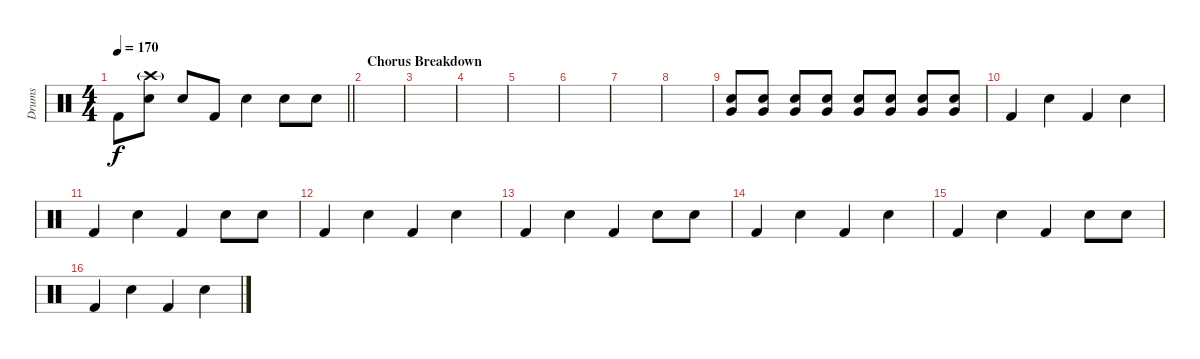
\track ("Drums" "Drums") {instrument percussion}
\staff {score}
\articulation defaults
\ts (4 4)
\tempo 170
\clef neutral
\barLineRight lightlight
\ks c "Kick (hit) 2".8{dy f}
("Crash high (hit)"{g} "Snare (hit) 2").8 "Snare (hit) 2".8 "Kick (hit) 2".8 "Snare (hit) 2".4 "Snare (hit) 2".8 "Snare (hit) 2".8 |
\section ("" "Chorus Breakdown")
|
|
|
|
|
|
|
("Snare (hit) 2" "Very Low Tom (hit)").8 ("Snare (hit) 2" "Very Low Tom (hit)").8 ("Snare (hit) 2" "Very Low Tom (hit)").8 ("Snare (hit) 2" "Very Low Tom (hit)").8 ("Snare (hit) 2" "Very Low Tom (hit)").8 ("Snare (hit) 2" "Very Low Tom (hit)").8 ("Snare (hit) 2" "Very Low Tom (hit)").8 ("Snare (hit) 2" "Very Low Tom (hit)").8 |
"Kick (hit) 2".4 "Hand Clap (hit)".4 "Kick (hit) 2".4 "Hand Clap (hit)".4 |
"Kick (hit) 2".4 "Hand Clap (hit)".4 "Kick (hit) 2".4 "Hand Clap (hit)".8 "Hand Clap (hit)".8 |
"Kick (hit) 2".4 "Hand Clap (hit)".4 "Kick (hit) 2".4 "Hand Clap (hit)".4 |
"Kick (hit) 2".4 "Hand Clap (hit)".4 "Kick (hit) 2".4 "Hand Clap (hit)".8 "Hand Clap (hit)".8 |
"Kick (hit) 2".4 "Hand Clap (hit)".4 "Kick (hit) 2".4 "Hand Clap (hit)".4 |
"Kick (hit) 2".4 "Hand Clap (hit)".4 "Kick (hit) 2".4 "Hand Clap (hit)".8 "Hand Clap (hit)".8 |
"Kick (hit) 2".4 "Hand Clap (hit)".4 "Kick (hit) 2".4 "Hand Clap (hit)".4
